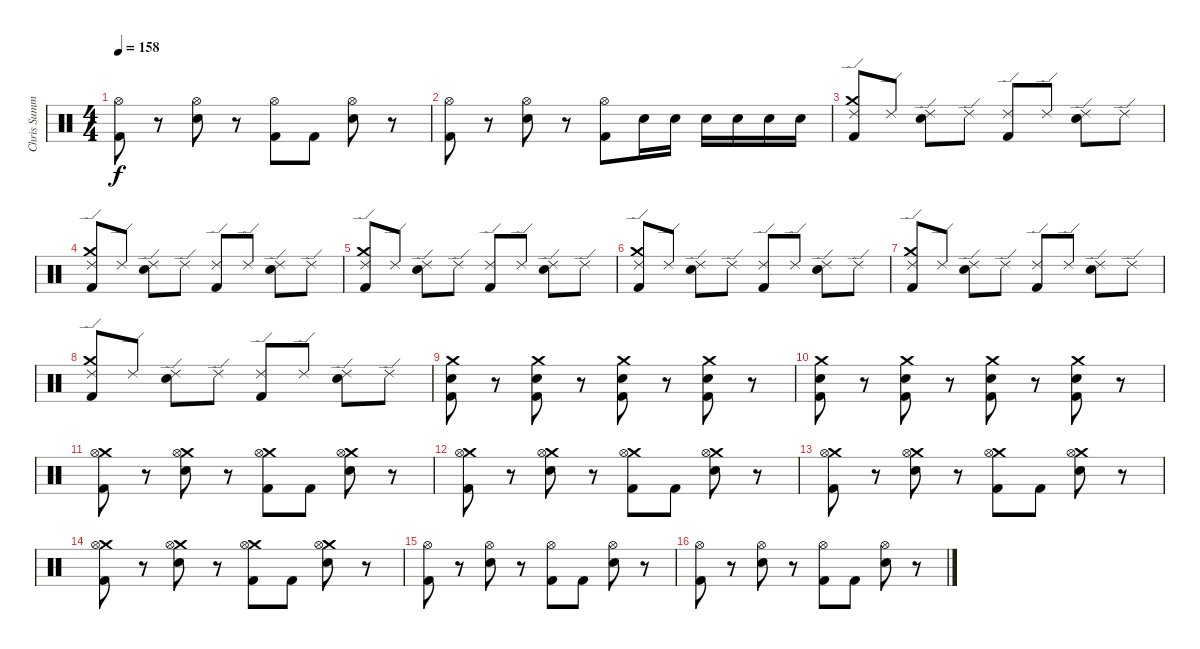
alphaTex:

\track ("Chris Summers" "Chris Summ") {instrument percussion}
\staff {score}
\articulation defaults
\ts (4 4)
\tempo 158
\clef neutral
\ks c
("Hi-Hat (open)" "Kick (hit) 2").8{dy f} r.8 ("Hi-Hat (open)" "Electric Snare (hit)").8 r.8 ("Hi-Hat (open)" "Kick (hit) 2").8 "Kick (hit) 2".8 ("Hi-Hat (open)" "Electric Snare (hit)").8 r.8 |
("Hi-Hat (open)" "Kick (hit) 2").8 r.8 ("Hi-Hat (open)" "Electric Snare (hit)").8 r.8 ("Hi-Hat (open)" "Kick (hit) 2").8 "Electric Snare (hit)".16 "Electric Snare (hit)".16 "Electric Snare (hit)".16 "Electric Snare (hit)".16 "Electric Snare (hit)".16 "Electric Snare (hit)".16 |
("Crash medium (hit)" "Ride (edge) 2" "Kick (hit) 2").8 "Ride (edge) 2".8 ("Ride (edge) 2" "Electric Snare (hit)").8 "Ride (edge) 2".8 ("Ride (edge) 2" "Kick (hit) 2").8 "Ride (edge) 2".8 ("Ride (edge) 2" "Electric Snare (hit)").8 "Ride (edge) 2".8 |
("Crash medium (hit)" "Ride (edge) 2" "Kick (hit) 2").8 "Ride (edge) 2".8 ("Ride (edge) 2" "Electric Snare (hit)").8 "Ride (edge) 2".8 ("Ride (edge) 2" "Kick (hit) 2").8 "Ride (edge) 2".8 ("Ride (edge) 2" "Electric Snare (hit)").8 "Ride (edge) 2".8 |
("Crash medium (hit)" "Ride (edge) 2" "Kick (hit) 2").8 "Ride (edge) 2".8 ("Ride (edge) 2" "Electric Snare (hit)").8 "Ride (edge) 2".8 ("Ride (edge) 2" "Kick (hit) 2").8 "Ride (edge) 2".8 ("Ride (edge) 2" "Electric Snare (hit)").8 "Ride (edge) 2".8 |
("Crash medium (hit)" "Ride (edge) 2" "Kick (hit) 2").8 "Ride (edge) 2".8 ("Ride (edge) 2" "Electric Snare (hit)").8 "Ride (edge) 2".8 ("Ride (edge) 2" "Kick (hit) 2").8 "Ride (edge) 2".8 ("Ride (edge) 2" "Electric Snare (hit)").8 "Ride (edge) 2".8 |
("Crash medium (hit)" "Ride (edge) 2" "Kick (hit) 2").8 "Ride (edge) 2".8 ("Ride (edge) 2" "Electric Snare (hit)").8 "Ride (edge) 2".8 ("Ride (edge) 2" "Kick (hit) 2").8 "Ride (edge) 2".8 ("Ride (edge) 2" "Electric Snare (hit)").8 "Ride (edge) 2".8 |
("Crash medium (hit)" "Ride (edge) 2" "Kick (hit) 2").8 "Ride (edge) 2".8 ("Ride (edge) 2" "Electric Snare (hit)").8 "Ride (edge) 2".8 ("Ride (edge) 2" "Kick (hit) 2").8 "Ride (edge) 2".8 ("Ride (edge) 2" "Electric Snare (hit)").8 "Ride (edge) 2".8 |
("Kick (hit) 2" "Crash medium (hit)" "Electric Snare (hit)").8 r.8 ("Kick (hit) 2" "Crash medium (hit)" "Electric Snare (hit)").8 r.8 ("Kick (hit) 2" "Crash medium (hit)" "Electric Snare (hit)").8 r.8 ("Kick (hit) 2" "Crash medium (hit)" "Electric Snare (hit)").8 r.8 |
("Kick (hit) 2" "Crash medium (hit)" "Electric Snare (hit)").8 r.8 ("Kick (hit) 2" "Crash medium (hit)" "Electric Snare (hit)").8 r.8 ("Kick (hit) 2" "Crash medium (hit)" "Electric Snare (hit)").8 r.8 ("Kick (hit) 2" "Crash medium (hit)" "Electric Snare (hit)").8 r.8 |
("Crash medium (hit)" "Hi-Hat (open)" "Kick (hit) 2").8 r.8 ("Crash medium (hit)" "Hi-Hat (open)" "Electric Snare (hit)").8 r.8 ("Crash medium (hit)" "Hi-Hat (open)" "Kick (hit) 2").8 "Kick (hit) 2".8 ("Crash medium (hit)" "Hi-Hat (open)" "Electric Snare (hit)").8 r.8 |
("Crash medium (hit)" "Hi-Hat (open)" "Kick (hit) 2").8 r.8 ("Crash medium (hit)" "Hi-Hat (open)" "Electric Snare (hit)").8 r.8 ("Crash medium (hit)" "Hi-Hat (open)" "Kick (hit) 2").8 "Kick (hit) 2".8 ("Crash medium (hit)" "Hi-Hat (open)" "Electric Snare (hit)").8 r.8 |
("Crash medium (hit)" "Hi-Hat (open)" "Kick (hit) 2").8 r.8 ("Crash medium (hit)" "Hi-Hat (open)" "Electric Snare (hit)").8 r.8 ("Crash medium (hit)" "Hi-Hat (open)" "Kick (hit) 2").8 "Kick (hit) 2".8 ("Crash medium (hit)" "Hi-Hat (open)" "Electric Snare (hit)").8 r.8 |
("Crash medium (hit)" "Hi-Hat (open)" "Kick (hit) 2").8 r.8 ("Crash medium (hit)" "Hi-Hat (open)" "Electric Snare (hit)").8 r.8 ("Crash medium (hit)" "Hi-Hat (open)" "Kick (hit) 2").8 "Kick (hit) 2".8 ("Crash medium (hit)" "Hi-Hat (open)" "Electric Snare (hit)").8 r.8 |
("Hi-Hat (open)" "Kick (hit) 2").8 r.8 ("Hi-Hat (open)" "Electric Snare (hit)").8 r.8 ("Hi-Hat (open)" "Kick (hit) 2").8 "Kick (hit) 2".8 ("Hi-Hat (open)" "Electric Snare (hit)").8 r.8 |
("Hi-Hat (open)" "Kick (hit) 2").8 r.8 ("Hi-Hat (open)" "Electric Snare (hit)").8 r.8 ("Hi-Hat (open)" "Kick (hit) 2").8 "Kick (hit) 2".8 ("Hi-Hat (open)" "Electric Snare (hit)").8 r.8
